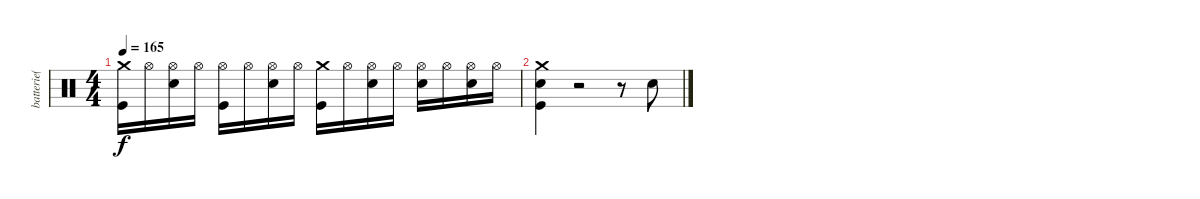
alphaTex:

\track ("batterie( Shawn )" "batterie( ") {instrument percussion}
\staff {score}
\articulation defaults
\ts (4 4)
\tempo 165
\clef neutral
\ks c
("Crash medium (hit)" "Kick (hit)").16{dy f} "Hi-Hat (open)".16 ("Hi-Hat (open)" "Snare (hit) 2").16 "Hi-Hat (open)".16 ("Hi-Hat (open)" "Kick (hit)").16 "Hi-Hat (open)".16 ("Hi-Hat (open)" "Snare (hit) 2").16 "Hi-Hat (open)".16 ("Crash medium (hit)" "Kick (hit)").16 "Hi-Hat (open)".16 ("Hi-Hat (open)" "Snare (hit) 2").16 "Hi-Hat (open)".16 ("Hi-Hat (open)" "Snare (hit) 2").16 "Hi-Hat (open)".16 ("Hi-Hat (open)" "Snare (hit) 2").16 "Hi-Hat (open)".16 |
("Crash medium (hit)" "Snare (hit) 2" "Kick (hit)").4 r.2 r.8 "Snare (hit) 2".8
